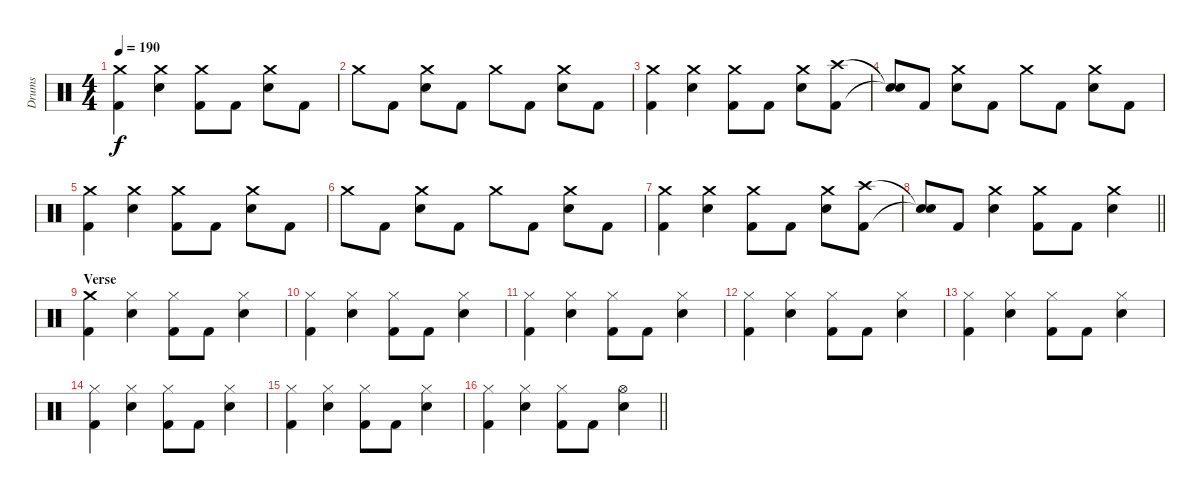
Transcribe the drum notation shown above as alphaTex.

\track ("Drums" "Drums") {instrument percussion}
\staff {score}
\articulation defaults
\ts (4 4)
\tempo 190
\clef neutral
\ks c
("Crash medium (hit)" "Kick (hit) 2").4{dy f} ("Crash medium (hit)" "Electric Snare (hit)").4 ("Crash medium (hit)" "Kick (hit) 2").8 "Kick (hit) 2".8 ("Crash medium (hit)" "Electric Snare (hit)").8 "Kick (hit) 2".8 |
"Crash medium (hit)".8 "Kick (hit) 2".8 ("Crash medium (hit)" "Electric Snare (hit)").8 "Kick (hit) 2".8 "Crash medium (hit)".8 "Kick (hit) 2".8 ("Crash medium (hit)" "Electric Snare (hit)").8 "Kick (hit) 2".8 |
("Crash medium (hit)" "Kick (hit) 2").4 ("Crash medium (hit)" "Electric Snare (hit)").4 ("Crash medium (hit)" "Kick (hit) 2").8 "Kick (hit) 2".8 ("Crash medium (hit)" "Electric Snare (hit)").8 ("Crash high (hit)" "Kick (hit) 2").8 |
("Snare (hit)"{t} "Snare (hit)"{t}).8 "Kick (hit) 2".8 ("Crash medium (hit)" "Electric Snare (hit)").8 "Kick (hit) 2".8 "Crash medium (hit)".8 "Kick (hit) 2".8 ("Crash medium (hit)" "Electric Snare (hit)").8 "Kick (hit) 2".8 |
("Crash medium (hit)" "Kick (hit) 2").4 ("Crash medium (hit)" "Electric Snare (hit)").4 ("Crash medium (hit)" "Kick (hit) 2").8 "Kick (hit) 2".8 ("Crash medium (hit)" "Electric Snare (hit)").8 "Kick (hit) 2".8 |
"Crash medium (hit)".8 "Kick (hit) 2".8 ("Crash medium (hit)" "Electric Snare (hit)").8 "Kick (hit) 2".8 "Crash medium (hit)".8 "Kick (hit) 2".8 ("Crash medium (hit)" "Electric Snare (hit)").8 "Kick (hit) 2".8 |
("Crash medium (hit)" "Kick (hit) 2").4 ("Crash medium (hit)" "Electric Snare (hit)").4 ("Crash medium (hit)" "Kick (hit) 2").8 "Kick (hit) 2".8 ("Crash medium (hit)" "Electric Snare (hit)").8 ("Crash high (hit)" "Kick (hit) 2").8 |
\barLineRight lightlight
("Snare (hit)"{t} "Snare (hit)"{t}).8 "Kick (hit) 2".8 ("Crash medium (hit)" "Electric Snare (hit)").4 ("Crash medium (hit)" "Kick (hit) 2").8 "Kick (hit) 2".8 ("Crash medium (hit)" "Electric Snare (hit)").4 |
\section ("" "Verse")
("Crash medium (hit)" "Kick (hit) 2").4 ("Hi-Hat (closed)" "Electric Snare (hit)").4 ("Hi-Hat (closed)" "Kick (hit) 2").8 "Kick (hit) 2".8 ("Hi-Hat (closed)" "Electric Snare (hit)").4 |
("Hi-Hat (closed)" "Kick (hit) 2").4 ("Hi-Hat (closed)" "Electric Snare (hit)").4 ("Hi-Hat (closed)" "Kick (hit) 2").8 "Kick (hit) 2".8 ("Hi-Hat (closed)" "Electric Snare (hit)").4 |
("Hi-Hat (closed)" "Kick (hit) 2").4 ("Hi-Hat (closed)" "Electric Snare (hit)").4 ("Hi-Hat (closed)" "Kick (hit) 2").8 "Kick (hit) 2".8 ("Hi-Hat (closed)" "Electric Snare (hit)").4 |
("Hi-Hat (closed)" "Kick (hit) 2").4 ("Hi-Hat (closed)" "Electric Snare (hit)").4 ("Hi-Hat (closed)" "Kick (hit) 2").8 "Kick (hit) 2".8 ("Hi-Hat (closed)" "Electric Snare (hit)").4 |
("Hi-Hat (closed)" "Kick (hit) 2").4 ("Hi-Hat (closed)" "Electric Snare (hit)").4 ("Hi-Hat (closed)" "Kick (hit) 2").8 "Kick (hit) 2".8 ("Hi-Hat (closed)" "Electric Snare (hit)").4 |
("Hi-Hat (closed)" "Kick (hit) 2").4 ("Hi-Hat (closed)" "Electric Snare (hit)").4 ("Hi-Hat (closed)" "Kick (hit) 2").8 "Kick (hit) 2".8 ("Hi-Hat (closed)" "Electric Snare (hit)").4 |
("Hi-Hat (closed)" "Kick (hit) 2").4 ("Hi-Hat (closed)" "Electric Snare (hit)").4 ("Hi-Hat (closed)" "Kick (hit) 2").8 "Kick (hit) 2".8 ("Hi-Hat (closed)" "Electric Snare (hit)").4 |
\barLineRight lightlight
("Hi-Hat (closed)" "Kick (hit) 2").4 ("Hi-Hat (closed)" "Electric Snare (hit)").4 ("Hi-Hat (closed)" "Kick (hit) 2").8 "Kick (hit) 2".8 ("Hi-Hat (open)" "Electric Snare (hit)").4
